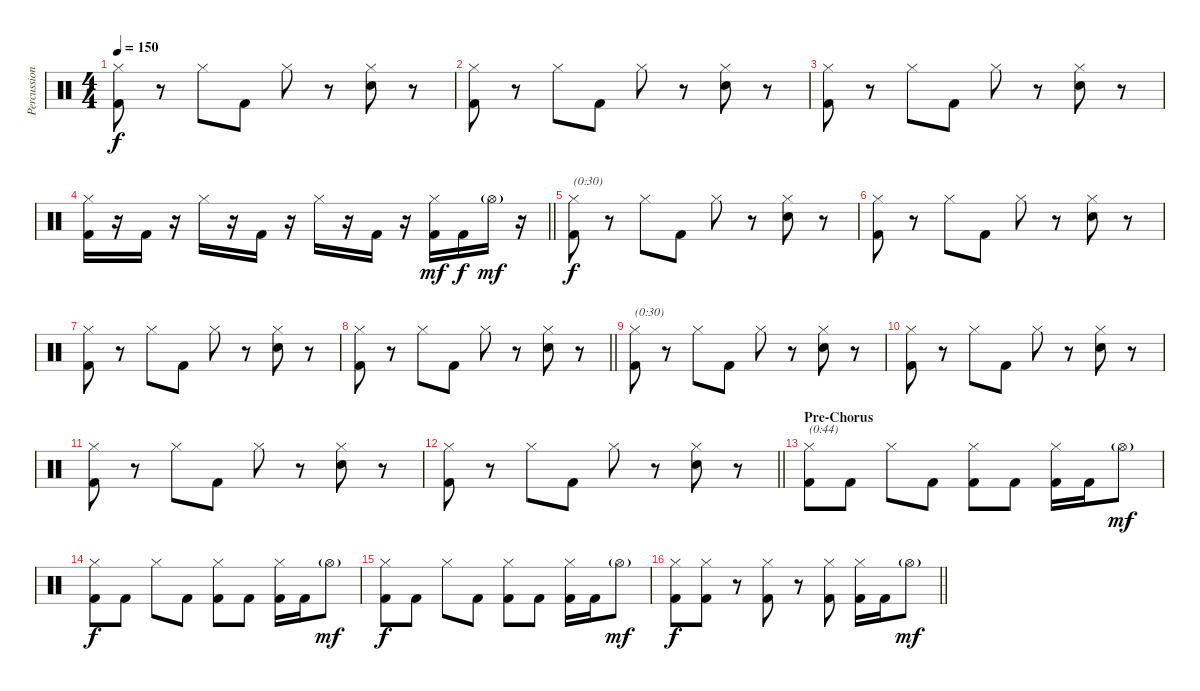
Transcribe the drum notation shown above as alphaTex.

\track ("Percussion" "Percussion") {instrument percussion}
\staff {score}
\articulation defaults
\ts (4 4)
\section ("" "")
\tempo 150
\clef neutral
\ks c
("Hi-Hat (closed)" "Kick (hit) 2").8{dy f} r.8 "Hi-Hat (closed)".8 "Kick (hit) 2".8 "Hi-Hat (closed)".8 r.8 ("Hi-Hat (closed)" "Hand Clap (hit)").8 r.8 |
("Hi-Hat (closed)" "Kick (hit) 2").8 r.8 "Hi-Hat (closed)".8 "Kick (hit) 2".8 "Hi-Hat (closed)".8 r.8 ("Hi-Hat (closed)" "Hand Clap (hit)").8 r.8 |
("Hi-Hat (closed)" "Kick (hit) 2").8 r.8 "Hi-Hat (closed)".8 "Kick (hit) 2".8 "Hi-Hat (closed)".8 r.8 ("Hi-Hat (closed)" "Hand Clap (hit)").8 r.8 |
\barLineRight lightlight
("Hi-Hat (closed)" "Kick (hit) 2").16 r.16 "Kick (hit) 2".16 r.16 "Hi-Hat (closed)".16 r.16 "Kick (hit) 2".16 r.16 "Hi-Hat (closed)".16 r.16 "Kick (hit) 2".16 r.16 ("Hi-Hat (closed)" "Kick (hit) 2").16{dy mf} "Kick (hit) 2".16{dy f} "Hi-Hat (open)"{g}.16{dy mf} r.16 |
\section ("" "")
("Hi-Hat (closed)" "Kick (hit) 2").8{txt "(0:30)" dy f} r.8 "Hi-Hat (closed)".8 "Kick (hit) 2".8 "Hi-Hat (closed)".8 r.8 ("Hi-Hat (closed)" "Hand Clap (hit)").8 r.8 |
("Hi-Hat (closed)" "Kick (hit) 2").8 r.8 "Hi-Hat (closed)".8 "Kick (hit) 2".8 "Hi-Hat (closed)".8 r.8 ("Hi-Hat (closed)" "Hand Clap (hit)").8 r.8 |
("Hi-Hat (closed)" "Kick (hit) 2").8 r.8 "Hi-Hat (closed)".8 "Kick (hit) 2".8 "Hi-Hat (closed)".8 r.8 ("Hi-Hat (closed)" "Hand Clap (hit)").8 r.8 |
\barLineRight lightlight
("Hi-Hat (closed)" "Kick (hit) 2").8 r.8 "Hi-Hat (closed)".8 "Kick (hit) 2".8 "Hi-Hat (closed)".8 r.8 ("Hi-Hat (closed)" "Hand Clap (hit)").8 r.8 |
\section ("" "")
("Hi-Hat (closed)" "Kick (hit) 2").8{txt "(0:30)"} r.8 "Hi-Hat (closed)".8 "Kick (hit) 2".8 "Hi-Hat (closed)".8 r.8 ("Hi-Hat (closed)" "Hand Clap (hit)").8 r.8 |
("Hi-Hat (closed)" "Kick (hit) 2").8 r.8 "Hi-Hat (closed)".8 "Kick (hit) 2".8 "Hi-Hat (closed)".8 r.8 ("Hi-Hat (closed)" "Hand Clap (hit)").8 r.8 |
("Hi-Hat (closed)" "Kick (hit) 2").8 r.8 "Hi-Hat (closed)".8 "Kick (hit) 2".8 "Hi-Hat (closed)".8 r.8 ("Hi-Hat (closed)" "Hand Clap (hit)").8 r.8 |
\barLineRight lightlight
("Hi-Hat (closed)" "Kick (hit) 2").8 r.8 "Hi-Hat (closed)".8 "Kick (hit) 2".8 "Hi-Hat (closed)".8 r.8 ("Hi-Hat (closed)" "Hand Clap (hit)").8 r.8 |
\section ("" "Pre-Chorus")
("Hi-Hat (closed)" "Kick (hit) 2").8{txt "(0:44)"} "Kick (hit) 2".8 "Hi-Hat (closed)".8 "Kick (hit) 2".8 ("Hi-Hat (closed)" "Kick (hit) 2").8 "Kick (hit) 2".8 ("Hi-Hat (closed)" "Kick (hit) 2").16 "Kick (hit) 2".16 "Hi-Hat (open)"{g}.8{dy mf} |
("Hi-Hat (closed)" "Kick (hit) 2").8{dy f} "Kick (hit) 2".8 "Hi-Hat (closed)".8 "Kick (hit) 2".8 ("Hi-Hat (closed)" "Kick (hit) 2").8 "Kick (hit) 2".8 ("Hi-Hat (closed)" "Kick (hit) 2").16 "Kick (hit) 2".16 "Hi-Hat (open)"{g}.8{dy mf} |
("Hi-Hat (closed)" "Kick (hit) 2").8{dy f} "Kick (hit) 2".8 "Hi-Hat (closed)".8 "Kick (hit) 2".8 ("Hi-Hat (closed)" "Kick (hit) 2").8 "Kick (hit) 2".8 ("Hi-Hat (closed)" "Kick (hit) 2").16 "Kick (hit) 2".16 "Hi-Hat (open)"{g}.8{dy mf} |
\barLineRight lightlight
("Hi-Hat (closed)" "Kick (hit) 2").8{dy f} ("Hi-Hat (closed)" "Kick (hit) 2").8 r.8 ("Hi-Hat (closed)" "Kick (hit) 2").8 r.8 ("Hi-Hat (closed)" "Kick (hit) 2").8 ("Hi-Hat (closed)" "Kick (hit) 2").16 "Kick (hit) 2".16 "Hi-Hat (open)"{g}.8{dy mf}
